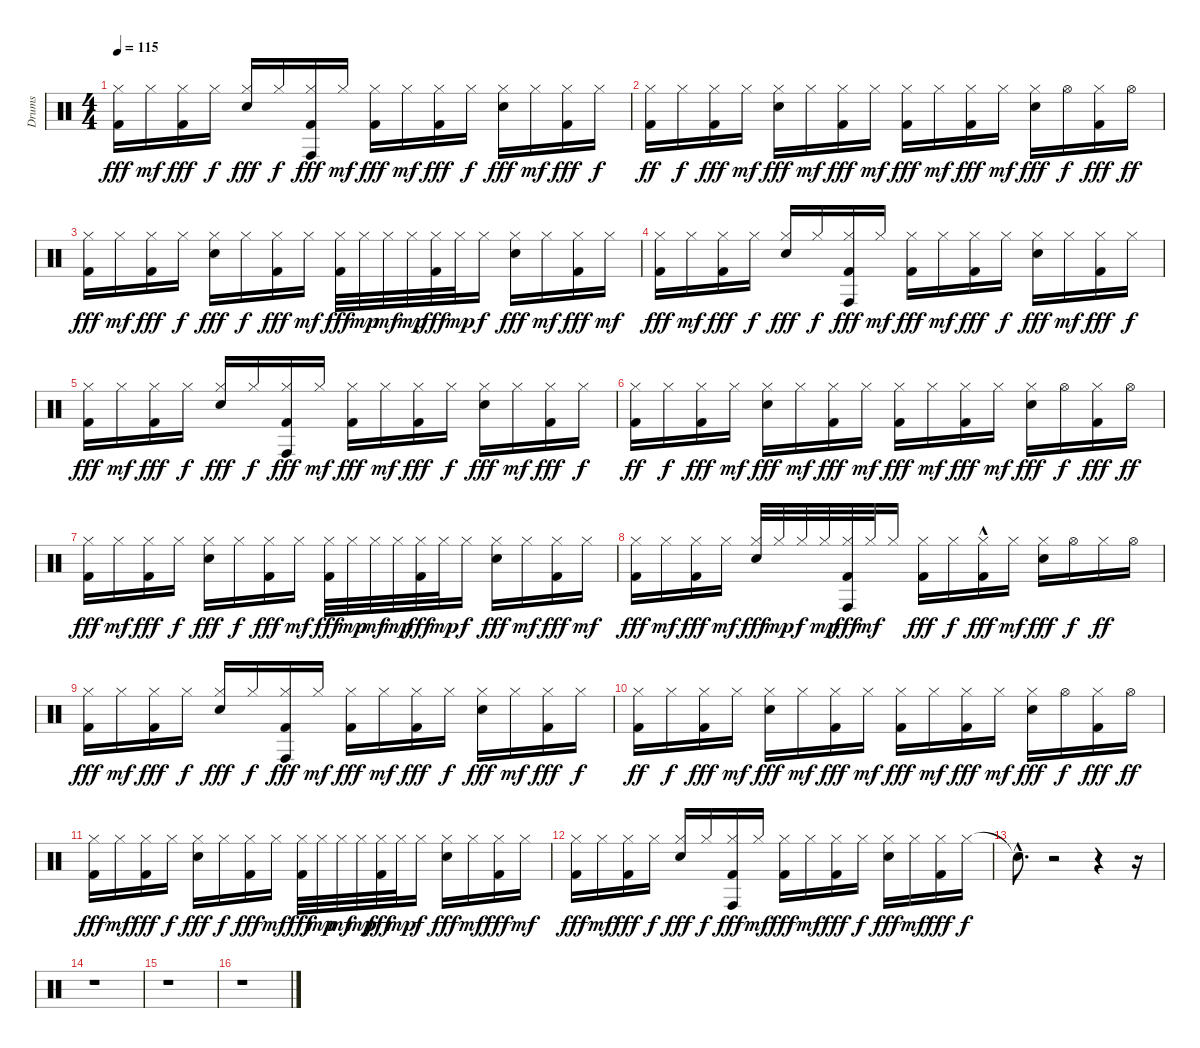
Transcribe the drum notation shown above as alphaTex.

\track ("Drums" "Drums") {instrument percussion}
\staff {score}
\articulation defaults
\ts (4 4)
\tempo 115
\clef neutral
\ks c
("Hi-Hat (closed)" "Kick (hit) 2").16{dy fff} "Hi-Hat (closed)".16{dy mf} ("Hi-Hat (closed)" "Kick (hit) 2").16{dy fff} "Hi-Hat (closed)".16{dy f} ("Hi-Hat (closed)" "Snare (hit) 2").16{dy fff} "Hi-Hat (closed)".16{dy f} ("Hi-Hat (closed)" "Conga high (hit)" "Kick (hit) 2").16{dy fff} "Hi-Hat (closed)".16{dy mf} ("Hi-Hat (closed)" "Kick (hit) 2").16{dy fff} "Hi-Hat (closed)".16{dy mf} ("Hi-Hat (closed)" "Kick (hit) 2").16{dy fff} "Hi-Hat (closed)".16{dy f} ("Hi-Hat (closed)" "Snare (hit) 2").16{dy fff} "Hi-Hat (closed)".16{dy mf} ("Hi-Hat (closed)" "Kick (hit) 2").16{dy fff} "Hi-Hat (closed)".16{dy f} |
("Hi-Hat (closed)" "Kick (hit) 2").16{dy ff} "Hi-Hat (closed)".16{dy f} ("Hi-Hat (closed)" "Kick (hit) 2").16{dy fff} "Hi-Hat (closed)".16{dy mf} ("Hi-Hat (closed)" "Snare (hit) 2").16{dy fff} "Hi-Hat (closed)".16{dy mf} ("Hi-Hat (closed)" "Kick (hit) 2").16{dy fff} "Hi-Hat (closed)".16{dy mf} ("Hi-Hat (closed)" "Kick (hit) 2").16{dy fff} "Hi-Hat (closed)".16{dy mf} ("Hi-Hat (closed)" "Kick (hit) 2").16{dy fff} "Hi-Hat (closed)".16{dy mf} ("Hi-Hat (closed)" "Snare (hit) 2").16{dy fff} "Hi-Hat (open)".16{dy f} ("Hi-Hat (closed)" "Kick (hit) 2").16{dy fff} "Hi-Hat (open)".16{dy ff} |
("Hi-Hat (closed)" "Kick (hit) 2").16{dy fff} "Hi-Hat (closed)".16{dy mf} ("Hi-Hat (closed)" "Kick (hit) 2").16{dy fff} "Hi-Hat (closed)".16{dy f} ("Hi-Hat (closed)" "Snare (hit) 2").16{dy fff} "Hi-Hat (closed)".16{dy f} ("Hi-Hat (closed)" "Kick (hit) 2").16{dy fff} "Hi-Hat (closed)".16{dy mf} ("Hi-Hat (closed)" "Kick (hit) 2").32{dy fff} "Hi-Hat (closed)".32{dy mp} "Hi-Hat (closed)".32{dy mf} "Hi-Hat (closed)".32{dy mp} ("Hi-Hat (closed)" "Kick (hit) 2").32{dy fff} "Hi-Hat (closed)".32{dy mp} "Hi-Hat (closed)".16{dy f} ("Hi-Hat (closed)" "Snare (hit) 2").16{dy fff} "Hi-Hat (closed)".16{dy mf} ("Hi-Hat (closed)" "Kick (hit) 2").16{dy fff} "Hi-Hat (closed)".16{dy mf} |
("Hi-Hat (closed)" "Kick (hit) 2").16{dy fff} "Hi-Hat (closed)".16{dy mf} ("Hi-Hat (closed)" "Kick (hit) 2").16{dy fff} "Hi-Hat (closed)".16{dy f} ("Hi-Hat (closed)" "Snare (hit) 2").16{dy fff} "Hi-Hat (closed)".16{dy f} ("Hi-Hat (closed)" "Conga high (hit)" "Kick (hit) 2").16{dy fff} "Hi-Hat (closed)".16{dy mf} ("Hi-Hat (closed)" "Kick (hit) 2").16{dy fff} "Hi-Hat (closed)".16{dy mf} ("Hi-Hat (closed)" "Kick (hit) 2").16{dy fff} "Hi-Hat (closed)".16{dy f} ("Hi-Hat (closed)" "Snare (hit) 2").16{dy fff} "Hi-Hat (closed)".16{dy mf} ("Hi-Hat (closed)" "Kick (hit) 2").16{dy fff} "Hi-Hat (closed)".16{dy f} |
("Hi-Hat (closed)" "Kick (hit) 2").16{dy fff} "Hi-Hat (closed)".16{dy mf} ("Hi-Hat (closed)" "Kick (hit) 2").16{dy fff} "Hi-Hat (closed)".16{dy f} ("Hi-Hat (closed)" "Snare (hit) 2").16{dy fff} "Hi-Hat (closed)".16{dy f} ("Hi-Hat (closed)" "Conga high (hit)" "Kick (hit) 2").16{dy fff} "Hi-Hat (closed)".16{dy mf} ("Hi-Hat (closed)" "Kick (hit) 2").16{dy fff} "Hi-Hat (closed)".16{dy mf} ("Hi-Hat (closed)" "Kick (hit) 2").16{dy fff} "Hi-Hat (closed)".16{dy f} ("Hi-Hat (closed)" "Snare (hit) 2").16{dy fff} "Hi-Hat (closed)".16{dy mf} ("Hi-Hat (closed)" "Kick (hit) 2").16{dy fff} "Hi-Hat (closed)".16{dy f} |
("Hi-Hat (closed)" "Kick (hit) 2").16{dy ff} "Hi-Hat (closed)".16{dy f} ("Hi-Hat (closed)" "Kick (hit) 2").16{dy fff} "Hi-Hat (closed)".16{dy mf} ("Hi-Hat (closed)" "Snare (hit) 2").16{dy fff} "Hi-Hat (closed)".16{dy mf} ("Hi-Hat (closed)" "Kick (hit) 2").16{dy fff} "Hi-Hat (closed)".16{dy mf} ("Hi-Hat (closed)" "Kick (hit) 2").16{dy fff} "Hi-Hat (closed)".16{dy mf} ("Hi-Hat (closed)" "Kick (hit) 2").16{dy fff} "Hi-Hat (closed)".16{dy mf} ("Hi-Hat (closed)" "Snare (hit) 2").16{dy fff} "Hi-Hat (open)".16{dy f} ("Hi-Hat (closed)" "Kick (hit) 2").16{dy fff} "Hi-Hat (open)".16{dy ff} |
("Hi-Hat (closed)" "Kick (hit) 2").16{dy fff} "Hi-Hat (closed)".16{dy mf} ("Hi-Hat (closed)" "Kick (hit) 2").16{dy fff} "Hi-Hat (closed)".16{dy f} ("Hi-Hat (closed)" "Snare (hit) 2").16{dy fff} "Hi-Hat (closed)".16{dy f} ("Hi-Hat (closed)" "Kick (hit) 2").16{dy fff} "Hi-Hat (closed)".16{dy mf} ("Hi-Hat (closed)" "Kick (hit) 2").32{dy fff} "Hi-Hat (closed)".32{dy mp} "Hi-Hat (closed)".32{dy mf} "Hi-Hat (closed)".32{dy mp} ("Hi-Hat (closed)" "Kick (hit) 2").32{dy fff} "Hi-Hat (closed)".32{dy mp} "Hi-Hat (closed)".16{dy f} ("Hi-Hat (closed)" "Snare (hit) 2").16{dy fff} "Hi-Hat (closed)".16{dy mf} ("Hi-Hat (closed)" "Kick (hit) 2").16{dy fff} "Hi-Hat (closed)".16{dy mf} |
("Hi-Hat (closed)" "Kick (hit) 2").16{dy fff} "Hi-Hat (closed)".16{dy mf} ("Hi-Hat (closed)" "Kick (hit) 2").16{dy fff} "Hi-Hat (closed)".16{dy mf} ("Hi-Hat (closed)" "Snare (hit) 2").32{dy fff} "Hi-Hat (closed)".32{dy mp} "Hi-Hat (closed)".32{dy f} "Hi-Hat (closed)".32{dy mp} ("Hi-Hat (closed)" "Conga high (hit)" "Kick (hit) 2").32{dy fff} "Hi-Hat (closed)".32{dy mf} "Hi-Hat (closed)".16 ("Hi-Hat (closed)" "Kick (hit) 2").16{dy fff} "Hi-Hat (closed)".16{dy f} ("Hi-Hat (closed)" "Kick (hit) 2"{hac}).16{dy fff} "Hi-Hat (closed)".16{dy mf} ("Hi-Hat (closed)" "Snare (hit) 2").16{dy fff} "Hi-Hat (open)".16{dy f} "Hi-Hat (closed)".16{dy ff} "Hi-Hat (open)".16 |
("Hi-Hat (closed)" "Kick (hit) 2").16{dy fff} "Hi-Hat (closed)".16{dy mf} ("Hi-Hat (closed)" "Kick (hit) 2").16{dy fff} "Hi-Hat (closed)".16{dy f} ("Hi-Hat (closed)" "Snare (hit) 2").16{dy fff} "Hi-Hat (closed)".16{dy f} ("Hi-Hat (closed)" "Conga high (hit)" "Kick (hit) 2").16{dy fff} "Hi-Hat (closed)".16{dy mf} ("Hi-Hat (closed)" "Kick (hit) 2").16{dy fff} "Hi-Hat (closed)".16{dy mf} ("Hi-Hat (closed)" "Kick (hit) 2").16{dy fff} "Hi-Hat (closed)".16{dy f} ("Hi-Hat (closed)" "Snare (hit) 2").16{dy fff} "Hi-Hat (closed)".16{dy mf} ("Hi-Hat (closed)" "Kick (hit) 2").16{dy fff} "Hi-Hat (closed)".16{dy f} |
("Hi-Hat (closed)" "Kick (hit) 2").16{dy ff} "Hi-Hat (closed)".16{dy f} ("Hi-Hat (closed)" "Kick (hit) 2").16{dy fff} "Hi-Hat (closed)".16{dy mf} ("Hi-Hat (closed)" "Snare (hit) 2").16{dy fff} "Hi-Hat (closed)".16{dy mf} ("Hi-Hat (closed)" "Kick (hit) 2").16{dy fff} "Hi-Hat (closed)".16{dy mf} ("Hi-Hat (closed)" "Kick (hit) 2").16{dy fff} "Hi-Hat (closed)".16{dy mf} ("Hi-Hat (closed)" "Kick (hit) 2").16{dy fff} "Hi-Hat (closed)".16{dy mf} ("Hi-Hat (closed)" "Snare (hit) 2").16{dy fff} "Hi-Hat (open)".16{dy f} ("Hi-Hat (closed)" "Kick (hit) 2").16{dy fff} "Hi-Hat (open)".16{dy ff} |
("Hi-Hat (closed)" "Kick (hit) 2").16{dy fff} "Hi-Hat (closed)".16{dy mf} ("Hi-Hat (closed)" "Kick (hit) 2").16{dy fff} "Hi-Hat (closed)".16{dy f} ("Hi-Hat (closed)" "Snare (hit) 2").16{dy fff} "Hi-Hat (closed)".16{dy f} ("Hi-Hat (closed)" "Kick (hit) 2").16{dy fff} "Hi-Hat (closed)".16{dy mf} ("Hi-Hat (closed)" "Kick (hit) 2").32{dy fff} "Hi-Hat (closed)".32{dy mp} "Hi-Hat (closed)".32{dy mf} "Hi-Hat (closed)".32{dy mp} ("Hi-Hat (closed)" "Kick (hit) 2").32{dy fff} "Hi-Hat (closed)".32{dy mp} "Hi-Hat (closed)".16{dy f} ("Hi-Hat (closed)" "Snare (hit) 2").16{dy fff} "Hi-Hat (closed)".16{dy mf} ("Hi-Hat (closed)" "Kick (hit) 2").16{dy fff} "Hi-Hat (closed)".16{dy mf} |
("Hi-Hat (closed)" "Kick (hit) 2").16{dy fff} "Hi-Hat (closed)".16{dy mf} ("Hi-Hat (closed)" "Kick (hit) 2").16{dy fff} "Hi-Hat (closed)".16{dy f} ("Hi-Hat (closed)" "Snare (hit) 2").16{dy fff} "Hi-Hat (closed)".16{dy f} ("Hi-Hat (closed)" "Conga high (hit)" "Kick (hit) 2").16{dy fff} "Hi-Hat (closed)".16{dy mf} ("Hi-Hat (closed)" "Kick (hit) 2").16{dy fff} "Hi-Hat (closed)".16{dy mf} ("Hi-Hat (closed)" "Kick (hit) 2").16{dy fff} "Hi-Hat (closed)".16{dy f} ("Hi-Hat (closed)" "Snare (hit) 2").16{dy fff} "Hi-Hat (closed)".16{dy mf} ("Hi-Hat (closed)" "Kick (hit) 2").16{dy fff} "Hi-Hat (closed)".16{dy f} |
"Snare (hit)"{hac t}.8{d} r.2 r.4 r.16 |
r.1 |
r.1 |
r.1
